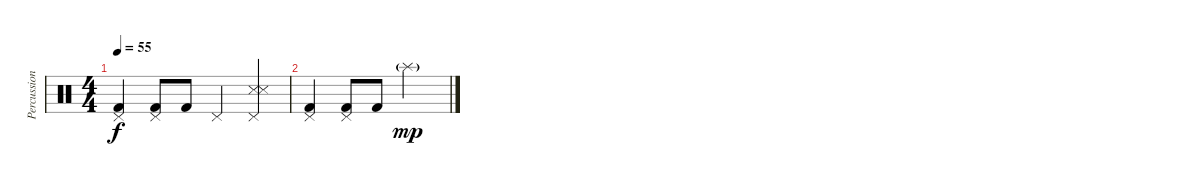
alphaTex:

\track ("Percussion" "Percussion") {instrument percussion}
\staff {score}
\articulation defaults
\ts (4 4)
\tempo 55
\clef neutral
\ks c
("Pedal Hi-Hat (hit)" "Kick (hit) 2").4{dy f} ("Pedal Hi-Hat (hit)" "Kick (hit) 2").8 "Kick (hit) 2".8 "Pedal Hi-Hat (hit)".4 ("Pedal Hi-Hat (hit)" "Snare (side stick) 3" "Snare (side stick) 3").4 |
("Pedal Hi-Hat (hit)" "Kick (hit) 2").4 ("Pedal Hi-Hat (hit)" "Kick (hit) 2").8 "Kick (hit) 2".8 "Splash (hit)"{g}.2{dy mp}
